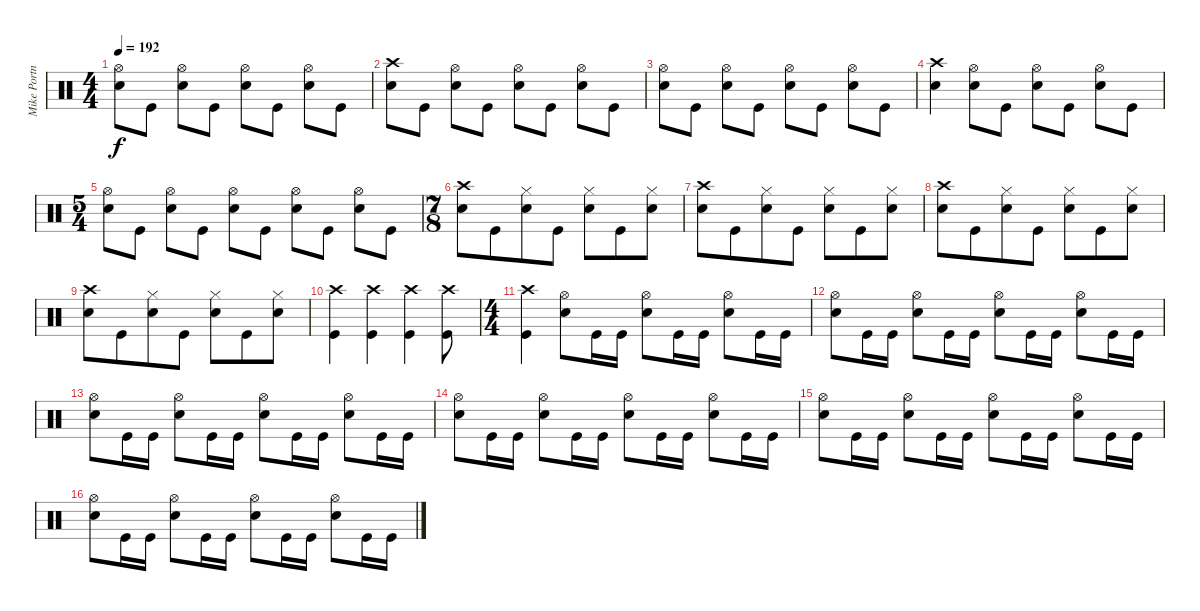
\track ("Mike Portnoy" "Mike Portn") {instrument percussion}
\staff {score}
\articulation defaults
\ts (4 4)
\tempo 192
\clef neutral
\ks c
("Hi-Hat (open)" "Electric Snare (hit)").8{dy f} "Kick (hit)".8 ("Hi-Hat (open)" "Electric Snare (hit)").8 "Kick (hit)".8 ("Hi-Hat (open)" "Electric Snare (hit)").8 "Kick (hit)".8 ("Hi-Hat (open)" "Electric Snare (hit)").8 "Kick (hit)".8 |
("Crash high (hit)" "Electric Snare (hit)").8 "Kick (hit)".8 ("Hi-Hat (open)" "Electric Snare (hit)").8 "Kick (hit)".8 ("Hi-Hat (open)" "Electric Snare (hit)").8 "Kick (hit)".8 ("Hi-Hat (open)" "Electric Snare (hit)").8 "Kick (hit)".8 |
("Hi-Hat (open)" "Electric Snare (hit)").8 "Kick (hit)".8 ("Hi-Hat (open)" "Electric Snare (hit)").8 "Kick (hit)".8 ("Hi-Hat (open)" "Electric Snare (hit)").8 "Kick (hit)".8 ("Hi-Hat (open)" "Electric Snare (hit)").8 "Kick (hit)".8 |
("Crash high (hit)" "Electric Snare (hit)").4 ("Hi-Hat (open)" "Electric Snare (hit)").8 "Kick (hit)".8 ("Hi-Hat (open)" "Electric Snare (hit)").8 "Kick (hit)".8 ("Hi-Hat (open)" "Electric Snare (hit)").8 "Kick (hit)".8 |
\ts (5 4)
("Hi-Hat (open)" "Electric Snare (hit)").8 "Kick (hit)".8 ("Hi-Hat (open)" "Electric Snare (hit)").8 "Kick (hit)".8 ("Hi-Hat (open)" "Electric Snare (hit)").8 "Kick (hit)".8 ("Hi-Hat (open)" "Electric Snare (hit)").8 "Kick (hit)".8 ("Hi-Hat (open)" "Electric Snare (hit)").8 "Kick (hit)".8 |
\ts (7 8)
("Crash high (hit)" "Electric Snare (hit)").8 "Kick (hit)".8 ("Hi-Hat (closed)" "Electric Snare (hit)").8 "Kick (hit)".8 ("Hi-Hat (closed)" "Electric Snare (hit)").8 "Kick (hit)".8 ("Hi-Hat (closed)" "Electric Snare (hit)").8 |
("Crash high (hit)" "Electric Snare (hit)").8 "Kick (hit)".8 ("Hi-Hat (closed)" "Electric Snare (hit)").8 "Kick (hit)".8 ("Hi-Hat (closed)" "Electric Snare (hit)").8 "Kick (hit)".8 ("Hi-Hat (closed)" "Electric Snare (hit)").8 |
("Crash high (hit)" "Electric Snare (hit)").8 "Kick (hit)".8 ("Hi-Hat (closed)" "Electric Snare (hit)").8 "Kick (hit)".8 ("Hi-Hat (closed)" "Electric Snare (hit)").8 "Kick (hit)".8 ("Hi-Hat (closed)" "Electric Snare (hit)").8 |
("Crash high (hit)" "Electric Snare (hit)").8 "Kick (hit)".8 ("Hi-Hat (closed)" "Electric Snare (hit)").8 "Kick (hit)".8 ("Hi-Hat (closed)" "Electric Snare (hit)").8 "Kick (hit)".8 ("Hi-Hat (closed)" "Electric Snare (hit)").8 |
("Crash high (hit)" "Kick (hit)").4 ("Crash high (hit)" "Kick (hit)").4 ("Crash high (hit)" "Kick (hit)").4 ("Crash high (hit)" "Kick (hit)").8 |
\ts (4 4)
("Crash high (hit)" "Kick (hit)").4 ("Hi-Hat (open)" "Electric Snare (hit)").8 "Kick (hit)".16 "Kick (hit)".16 ("Hi-Hat (open)" "Electric Snare (hit)").8 "Kick (hit)".16 "Kick (hit)".16 ("Hi-Hat (open)" "Electric Snare (hit)").8 "Kick (hit)".16 "Kick (hit)".16 |
("Hi-Hat (open)" "Electric Snare (hit)").8 "Kick (hit)".16 "Kick (hit)".16 ("Hi-Hat (open)" "Electric Snare (hit)").8 "Kick (hit)".16 "Kick (hit)".16 ("Hi-Hat (open)" "Electric Snare (hit)").8 "Kick (hit)".16 "Kick (hit)".16 ("Hi-Hat (open)" "Electric Snare (hit)").8 "Kick (hit)".16 "Kick (hit)".16 |
("Hi-Hat (open)" "Electric Snare (hit)").8 "Kick (hit)".16 "Kick (hit)".16 ("Hi-Hat (open)" "Electric Snare (hit)").8 "Kick (hit)".16 "Kick (hit)".16 ("Hi-Hat (open)" "Electric Snare (hit)").8 "Kick (hit)".16 "Kick (hit)".16 ("Hi-Hat (open)" "Electric Snare (hit)").8 "Kick (hit)".16 "Kick (hit)".16 |
("Hi-Hat (open)" "Electric Snare (hit)").8 "Kick (hit)".16 "Kick (hit)".16 ("Hi-Hat (open)" "Electric Snare (hit)").8 "Kick (hit)".16 "Kick (hit)".16 ("Hi-Hat (open)" "Electric Snare (hit)").8 "Kick (hit)".16 "Kick (hit)".16 ("Hi-Hat (open)" "Electric Snare (hit)").8 "Kick (hit)".16 "Kick (hit)".16 |
("Hi-Hat (open)" "Electric Snare (hit)").8 "Kick (hit)".16 "Kick (hit)".16 ("Hi-Hat (open)" "Electric Snare (hit)").8 "Kick (hit)".16 "Kick (hit)".16 ("Hi-Hat (open)" "Electric Snare (hit)").8 "Kick (hit)".16 "Kick (hit)".16 ("Hi-Hat (open)" "Electric Snare (hit)").8 "Kick (hit)".16 "Kick (hit)".16 |
("Hi-Hat (open)" "Electric Snare (hit)").8 "Kick (hit)".16 "Kick (hit)".16 ("Hi-Hat (open)" "Electric Snare (hit)").8 "Kick (hit)".16 "Kick (hit)".16 ("Hi-Hat (open)" "Electric Snare (hit)").8 "Kick (hit)".16 "Kick (hit)".16 ("Hi-Hat (open)" "Electric Snare (hit)").8 "Kick (hit)".16 "Kick (hit)".16
